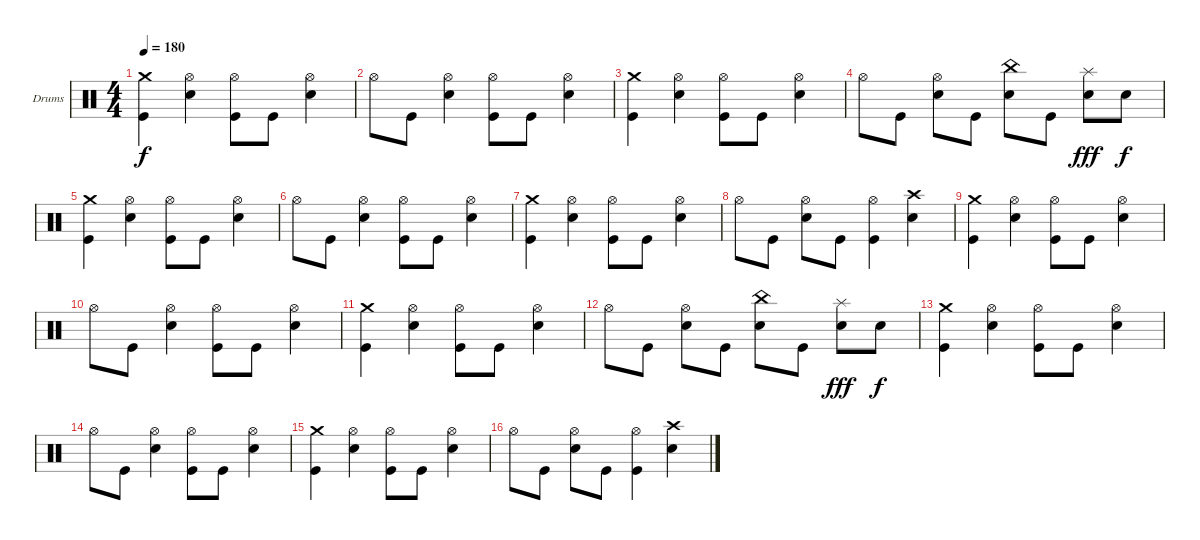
\defaultSystemsLayout 4
\bracketExtendMode groupsimilarinstruments
\firstSystemTrackNameOrientation horizontal
\otherSystemsTrackNameOrientation horizontal
\track ("Барабаны" "Drums") {instrument percussion}
\staff {score}
\articulation defaults
\ts (4 4)
\tempo 180
\clef neutral
\ks c
("Crash medium (hit)" "Kick (hit)").4{dy f} ("Hi-Hat (open)" "Snare (hit) 2").4 ("Hi-Hat (open)" "Kick (hit)").8 "Kick (hit)".8 ("Hi-Hat (open)" "Snare (hit) 2").4 |
"Hi-Hat (open)".8 "Kick (hit)".8 ("Hi-Hat (open)" "Snare (hit) 2").4 ("Hi-Hat (open)" "Kick (hit)").8 "Kick (hit)".8 ("Hi-Hat (open)" "Snare (hit) 2").4 |
("Crash medium (hit)" "Kick (hit)").4 ("Hi-Hat (open)" "Snare (hit) 2").4 ("Hi-Hat (open)" "Kick (hit)").8 "Kick (hit)".8 ("Hi-Hat (open)" "Snare (hit) 2").4 |
"Hi-Hat (open)".8 "Kick (hit)".8 ("Hi-Hat (open)" "Snare (hit) 2").8 "Kick (hit)".8 ("China (hit)" "Snare (hit) 2").8 "Kick (hit)".8 ("Splash (hit)" "Snare (hit) 2").8{dy fff} "Snare (hit) 2".8{dy f} |
("Crash medium (hit)" "Kick (hit)").4 ("Hi-Hat (open)" "Snare (hit) 2").4 ("Hi-Hat (open)" "Kick (hit)").8 "Kick (hit)".8 ("Hi-Hat (open)" "Snare (hit) 2").4 |
"Hi-Hat (open)".8 "Kick (hit)".8 ("Hi-Hat (open)" "Snare (hit) 2").4 ("Hi-Hat (open)" "Kick (hit)").8 "Kick (hit)".8 ("Hi-Hat (open)" "Snare (hit) 2").4 |
("Crash medium (hit)" "Kick (hit)").4 ("Hi-Hat (open)" "Snare (hit) 2").4 ("Hi-Hat (open)" "Kick (hit)").8 "Kick (hit)".8 ("Hi-Hat (open)" "Snare (hit) 2").4 |
"Hi-Hat (open)".8 "Kick (hit)".8 ("Hi-Hat (open)" "Snare (hit) 2").8 "Kick (hit)".8 ("Hi-Hat (open)" "Kick (hit)").4 ("Crash high (hit)" "Snare (hit) 2").4 |
("Crash medium (hit)" "Kick (hit)").4 ("Hi-Hat (open)" "Snare (hit) 2").4 ("Hi-Hat (open)" "Kick (hit)").8 "Kick (hit)".8 ("Hi-Hat (open)" "Snare (hit) 2").4 |
"Hi-Hat (open)".8 "Kick (hit)".8 ("Hi-Hat (open)" "Snare (hit) 2").4 ("Hi-Hat (open)" "Kick (hit)").8 "Kick (hit)".8 ("Hi-Hat (open)" "Snare (hit) 2").4 |
("Crash medium (hit)" "Kick (hit)").4 ("Hi-Hat (open)" "Snare (hit) 2").4 ("Hi-Hat (open)" "Kick (hit)").8 "Kick (hit)".8 ("Hi-Hat (open)" "Snare (hit) 2").4 |
"Hi-Hat (open)".8 "Kick (hit)".8 ("Hi-Hat (open)" "Snare (hit) 2").8 "Kick (hit)".8 ("China (hit)" "Snare (hit) 2").8 "Kick (hit)".8 ("Splash (hit)" "Snare (hit) 2").8{dy fff} "Snare (hit) 2".8{dy f} |
("Crash medium (hit)" "Kick (hit)").4 ("Hi-Hat (open)" "Snare (hit) 2").4 ("Hi-Hat (open)" "Kick (hit)").8 "Kick (hit)".8 ("Hi-Hat (open)" "Snare (hit) 2").4 |
"Hi-Hat (open)".8 "Kick (hit)".8 ("Hi-Hat (open)" "Snare (hit) 2").4 ("Hi-Hat (open)" "Kick (hit)").8 "Kick (hit)".8 ("Hi-Hat (open)" "Snare (hit) 2").4 |
("Crash medium (hit)" "Kick (hit)").4 ("Hi-Hat (open)" "Snare (hit) 2").4 ("Hi-Hat (open)" "Kick (hit)").8 "Kick (hit)".8 ("Hi-Hat (open)" "Snare (hit) 2").4 |
"Hi-Hat (open)".8 "Kick (hit)".8 ("Hi-Hat (open)" "Snare (hit) 2").8 "Kick (hit)".8 ("Hi-Hat (open)" "Kick (hit)").4 ("Crash high (hit)" "Snare (hit) 2").4
